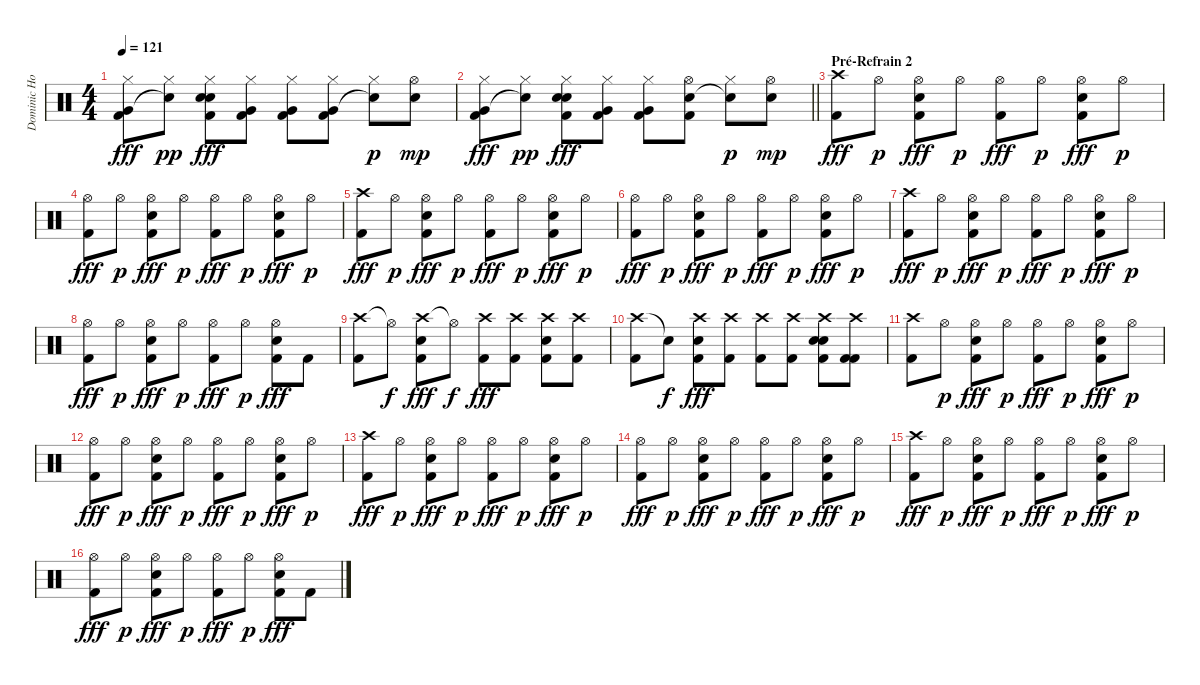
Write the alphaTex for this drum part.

\track ("Dominic Howard" "Dominic Ho") {instrument percussion}
\staff {score}
\articulation defaults
\ts (4 4)
\tempo 121
\clef neutral
\ks c
("Hi-Hat (closed)" "Very Low Tom (hit)" "Kick (hit) 2").8{dy fff} ("Hi-Hat (closed)" "Snare (hit)"{t}).8{dy pp} ("Hi-Hat (closed)" "Electric Snare (hit)" "Hand Clap (hit)" "Kick (hit) 2").8{dy fff} ("Hi-Hat (closed)" "Very Low Tom (hit)" "Kick (hit) 2").8 ("Hi-Hat (closed)" "Very Low Tom (hit)" "Kick (hit) 2").8 ("Hi-Hat (closed)" "Very Low Tom (hit)" "Kick (hit) 2").8 ("Hi-Hat (closed)" "Snare (hit)"{t}).8{dy p} ("Hi-Hat (open)" "Electric Snare (hit)").8{dy mp} |
\barLineRight lightlight
("Hi-Hat (closed)" "Very Low Tom (hit)" "Kick (hit) 2").8{dy fff} ("Hi-Hat (closed)" "Snare (hit)"{t}).8{dy pp} ("Hi-Hat (closed)" "Electric Snare (hit)" "Hand Clap (hit)" "Kick (hit) 2").8{dy fff} ("Hi-Hat (closed)" "Very Low Tom (hit)" "Kick (hit) 2").8 ("Hi-Hat (closed)" "Very Low Tom (hit)" "Kick (hit) 2").8 ("Hi-Hat (open)" "Electric Snare (hit)" "Kick (hit) 2").8 ("Hi-Hat (closed)" "Snare (hit)"{t}).8{dy p} ("Hi-Hat (open)" "Electric Snare (hit)").8{dy mp} |
\section ("" "Pré-Refrain 2")
("Crash high (hit)" "Kick (hit) 2").8{dy fff} "Hi-Hat (open)".8{dy p} ("Hi-Hat (open)" "Electric Snare (hit)" "Kick (hit) 2").8{dy fff} "Hi-Hat (open)".8{dy p} ("Hi-Hat (open)" "Kick (hit) 2").8{dy fff} "Hi-Hat (open)".8{dy p} ("Hi-Hat (open)" "Electric Snare (hit)" "Kick (hit) 2").8{dy fff} "Hi-Hat (open)".8{dy p} |
("Hi-Hat (open)" "Kick (hit) 2").8{dy fff} "Hi-Hat (open)".8{dy p} ("Hi-Hat (open)" "Electric Snare (hit)" "Kick (hit) 2").8{dy fff} "Hi-Hat (open)".8{dy p} ("Hi-Hat (open)" "Kick (hit) 2").8{dy fff} "Hi-Hat (open)".8{dy p} ("Hi-Hat (open)" "Electric Snare (hit)" "Kick (hit) 2").8{dy fff} "Hi-Hat (open)".8{dy p} |
("Crash high (hit)" "Kick (hit) 2").8{dy fff} "Hi-Hat (open)".8{dy p} ("Hi-Hat (open)" "Electric Snare (hit)" "Kick (hit) 2").8{dy fff} "Hi-Hat (open)".8{dy p} ("Hi-Hat (open)" "Kick (hit) 2").8{dy fff} "Hi-Hat (open)".8{dy p} ("Hi-Hat (open)" "Electric Snare (hit)" "Kick (hit) 2").8{dy fff} "Hi-Hat (open)".8{dy p} |
("Hi-Hat (open)" "Kick (hit) 2").8{dy fff} "Hi-Hat (open)".8{dy p} ("Hi-Hat (open)" "Electric Snare (hit)" "Kick (hit) 2").8{dy fff} "Hi-Hat (open)".8{dy p} ("Hi-Hat (open)" "Kick (hit) 2").8{dy fff} "Hi-Hat (open)".8{dy p} ("Hi-Hat (open)" "Electric Snare (hit)" "Kick (hit) 2").8{dy fff} "Hi-Hat (open)".8{dy p} |
("Crash high (hit)" "Kick (hit) 2").8{dy fff} "Hi-Hat (open)".8{dy p} ("Hi-Hat (open)" "Electric Snare (hit)" "Kick (hit) 2").8{dy fff} "Hi-Hat (open)".8{dy p} ("Hi-Hat (open)" "Kick (hit) 2").8{dy fff} "Hi-Hat (open)".8{dy p} ("Hi-Hat (open)" "Electric Snare (hit)" "Kick (hit) 2").8{dy fff} "Hi-Hat (open)".8{dy p} |
("Hi-Hat (open)" "Kick (hit) 2").8{dy fff} "Hi-Hat (open)".8{dy p} ("Hi-Hat (open)" "Electric Snare (hit)" "Kick (hit) 2").8{dy fff} "Hi-Hat (open)".8{dy p} ("Hi-Hat (open)" "Kick (hit) 2").8{dy fff} "Hi-Hat (open)".8{dy p} ("Hi-Hat (open)" "Electric Snare (hit)" "Kick (hit) 2").8{dy fff} "Kick (hit) 2".8 |
("Crash high (hit)" "Kick (hit) 2").8 "Hi-Hat (open)"{t}.8{dy f} ("Crash high (hit)" "Electric Snare (hit)" "Kick (hit) 2").8{dy fff} "Hi-Hat (open)"{t}.8{dy f} ("Crash high (hit)" "Kick (hit) 2").8{dy fff} ("Crash high (hit)" "Kick (hit) 2").8 ("Crash high (hit)" "Electric Snare (hit)" "Kick (hit) 2").8 ("Crash high (hit)" "Kick (hit) 2").8 |
("Crash high (hit)" "Kick (hit) 2").8 "Snare (hit)"{t}.8{dy f} ("Crash high (hit)" "Electric Snare (hit)" "Kick (hit) 2").8{dy fff} ("Crash high (hit)" "Kick (hit) 2").8 ("Crash high (hit)" "Kick (hit) 2").8 ("Crash high (hit)" "Kick (hit) 2").8 ("Crash high (hit)" "Electric Snare (hit)" "Electric Snare (hit)" "Kick (hit) 2").8 ("Crash high (hit)" "Kick (hit) 2" "Kick (hit) 2").8 |
("Crash high (hit)" "Kick (hit) 2").8 "Hi-Hat (open)".8{dy p} ("Hi-Hat (open)" "Electric Snare (hit)" "Kick (hit) 2").8{dy fff} "Hi-Hat (open)".8{dy p} ("Hi-Hat (open)" "Kick (hit) 2").8{dy fff} "Hi-Hat (open)".8{dy p} ("Hi-Hat (open)" "Electric Snare (hit)" "Kick (hit) 2").8{dy fff} "Hi-Hat (open)".8{dy p} |
("Hi-Hat (open)" "Kick (hit) 2").8{dy fff} "Hi-Hat (open)".8{dy p} ("Hi-Hat (open)" "Electric Snare (hit)" "Kick (hit) 2").8{dy fff} "Hi-Hat (open)".8{dy p} ("Hi-Hat (open)" "Kick (hit) 2").8{dy fff} "Hi-Hat (open)".8{dy p} ("Hi-Hat (open)" "Electric Snare (hit)" "Kick (hit) 2").8{dy fff} "Hi-Hat (open)".8{dy p} |
("Crash high (hit)" "Kick (hit) 2").8{dy fff} "Hi-Hat (open)".8{dy p} ("Hi-Hat (open)" "Electric Snare (hit)" "Kick (hit) 2").8{dy fff} "Hi-Hat (open)".8{dy p} ("Hi-Hat (open)" "Kick (hit) 2").8{dy fff} "Hi-Hat (open)".8{dy p} ("Hi-Hat (open)" "Electric Snare (hit)" "Kick (hit) 2").8{dy fff} "Hi-Hat (open)".8{dy p} |
("Hi-Hat (open)" "Kick (hit) 2").8{dy fff} "Hi-Hat (open)".8{dy p} ("Hi-Hat (open)" "Electric Snare (hit)" "Kick (hit) 2").8{dy fff} "Hi-Hat (open)".8{dy p} ("Hi-Hat (open)" "Kick (hit) 2").8{dy fff} "Hi-Hat (open)".8{dy p} ("Hi-Hat (open)" "Electric Snare (hit)" "Kick (hit) 2").8{dy fff} "Hi-Hat (open)".8{dy p} |
("Crash high (hit)" "Kick (hit) 2").8{dy fff} "Hi-Hat (open)".8{dy p} ("Hi-Hat (open)" "Electric Snare (hit)" "Kick (hit) 2").8{dy fff} "Hi-Hat (open)".8{dy p} ("Hi-Hat (open)" "Kick (hit) 2").8{dy fff} "Hi-Hat (open)".8{dy p} ("Hi-Hat (open)" "Electric Snare (hit)" "Kick (hit) 2").8{dy fff} "Hi-Hat (open)".8{dy p} |
("Hi-Hat (open)" "Kick (hit) 2").8{dy fff} "Hi-Hat (open)".8{dy p} ("Hi-Hat (open)" "Electric Snare (hit)" "Kick (hit) 2").8{dy fff} "Hi-Hat (open)".8{dy p} ("Hi-Hat (open)" "Kick (hit) 2").8{dy fff} "Hi-Hat (open)".8{dy p} ("Hi-Hat (open)" "Electric Snare (hit)" "Kick (hit) 2").8{dy fff} "Kick (hit) 2".8
